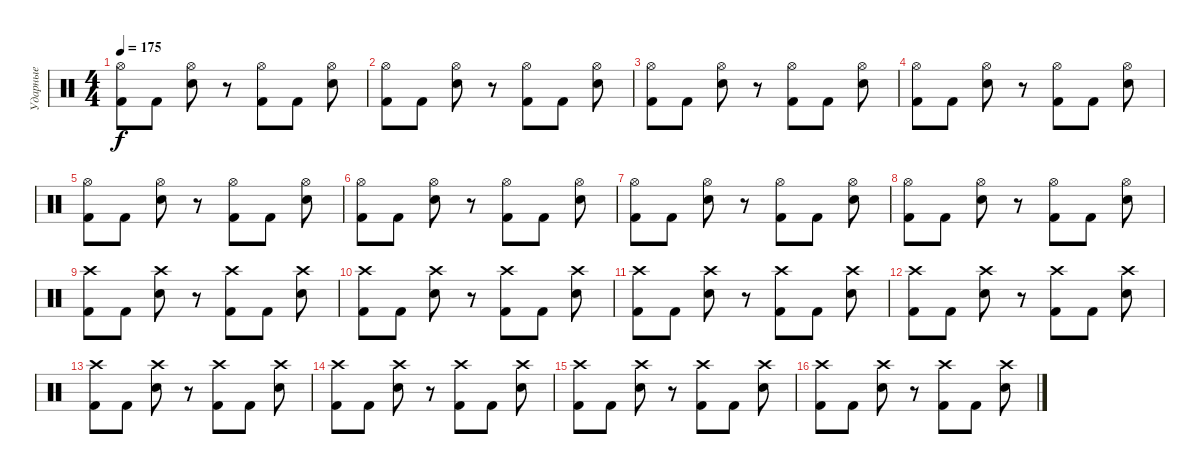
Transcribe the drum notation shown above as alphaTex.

\track ("Ударные" "Ударные") {instrument percussion}
\staff {score}
\articulation defaults
\ts (4 4)
\tempo 175
\clef neutral
\ks c
("Kick (hit) 2" "Hi-Hat (open)").8{dy f} "Kick (hit) 2".8 ("Electric Snare (hit)" "Hi-Hat (open)").8 r.8 ("Kick (hit) 2" "Hi-Hat (open)").8 "Kick (hit) 2".8 ("Electric Snare (hit)" "Hi-Hat (open)").8 |
("Kick (hit) 2" "Hi-Hat (open)").8 "Kick (hit) 2".8 ("Electric Snare (hit)" "Hi-Hat (open)").8 r.8 ("Kick (hit) 2" "Hi-Hat (open)").8 "Kick (hit) 2".8 ("Electric Snare (hit)" "Hi-Hat (open)").8 |
("Kick (hit) 2" "Hi-Hat (open)").8 "Kick (hit) 2".8 ("Electric Snare (hit)" "Hi-Hat (open)").8 r.8 ("Kick (hit) 2" "Hi-Hat (open)").8 "Kick (hit) 2".8 ("Electric Snare (hit)" "Hi-Hat (open)").8 |
("Kick (hit) 2" "Hi-Hat (open)").8 "Kick (hit) 2".8 ("Electric Snare (hit)" "Hi-Hat (open)").8 r.8 ("Kick (hit) 2" "Hi-Hat (open)").8 "Kick (hit) 2".8 ("Electric Snare (hit)" "Hi-Hat (open)").8 |
("Kick (hit) 2" "Hi-Hat (open)").8 "Kick (hit) 2".8 ("Electric Snare (hit)" "Hi-Hat (open)").8 r.8 ("Kick (hit) 2" "Hi-Hat (open)").8 "Kick (hit) 2".8 ("Electric Snare (hit)" "Hi-Hat (open)").8 |
("Kick (hit) 2" "Hi-Hat (open)").8 "Kick (hit) 2".8 ("Electric Snare (hit)" "Hi-Hat (open)").8 r.8 ("Kick (hit) 2" "Hi-Hat (open)").8 "Kick (hit) 2".8 ("Electric Snare (hit)" "Hi-Hat (open)").8 |
("Kick (hit) 2" "Hi-Hat (open)").8 "Kick (hit) 2".8 ("Electric Snare (hit)" "Hi-Hat (open)").8 r.8 ("Kick (hit) 2" "Hi-Hat (open)").8 "Kick (hit) 2".8 ("Electric Snare (hit)" "Hi-Hat (open)").8 |
("Kick (hit) 2" "Hi-Hat (open)").8 "Kick (hit) 2".8 ("Electric Snare (hit)" "Hi-Hat (open)").8 r.8 ("Kick (hit) 2" "Hi-Hat (open)").8 "Kick (hit) 2".8 ("Electric Snare (hit)" "Hi-Hat (open)").8 |
("Kick (hit) 2" "Crash high (hit)").8 "Kick (hit) 2".8 ("Electric Snare (hit)" "Crash high (hit)").8 r.8 ("Kick (hit) 2" "Crash high (hit)").8 "Kick (hit) 2".8 ("Electric Snare (hit)" "Crash high (hit)").8 |
("Kick (hit) 2" "Crash high (hit)").8 "Kick (hit) 2".8 ("Electric Snare (hit)" "Crash high (hit)").8 r.8 ("Kick (hit) 2" "Crash high (hit)").8 "Kick (hit) 2".8 ("Electric Snare (hit)" "Crash high (hit)").8 |
("Kick (hit) 2" "Crash high (hit)").8 "Kick (hit) 2".8 ("Electric Snare (hit)" "Crash high (hit)").8 r.8 ("Kick (hit) 2" "Crash high (hit)").8 "Kick (hit) 2".8 ("Electric Snare (hit)" "Crash high (hit)").8 |
("Kick (hit) 2" "Crash high (hit)").8 "Kick (hit) 2".8 ("Electric Snare (hit)" "Crash high (hit)").8 r.8 ("Kick (hit) 2" "Crash high (hit)").8 "Kick (hit) 2".8 ("Electric Snare (hit)" "Crash high (hit)").8 |
("Kick (hit) 2" "Crash high (hit)").8 "Kick (hit) 2".8 ("Electric Snare (hit)" "Crash high (hit)").8 r.8 ("Kick (hit) 2" "Crash high (hit)").8 "Kick (hit) 2".8 ("Electric Snare (hit)" "Crash high (hit)").8 |
("Kick (hit) 2" "Crash high (hit)").8 "Kick (hit) 2".8 ("Electric Snare (hit)" "Crash high (hit)").8 r.8 ("Kick (hit) 2" "Crash high (hit)").8 "Kick (hit) 2".8 ("Electric Snare (hit)" "Crash high (hit)").8 |
("Kick (hit) 2" "Crash high (hit)").8 "Kick (hit) 2".8 ("Electric Snare (hit)" "Crash high (hit)").8 r.8 ("Kick (hit) 2" "Crash high (hit)").8 "Kick (hit) 2".8 ("Electric Snare (hit)" "Crash high (hit)").8 |
("Kick (hit) 2" "Crash high (hit)").8 "Kick (hit) 2".8 ("Electric Snare (hit)" "Crash high (hit)").8 r.8 ("Kick (hit) 2" "Crash high (hit)").8 "Kick (hit) 2".8 ("Electric Snare (hit)" "Crash high (hit)").8
